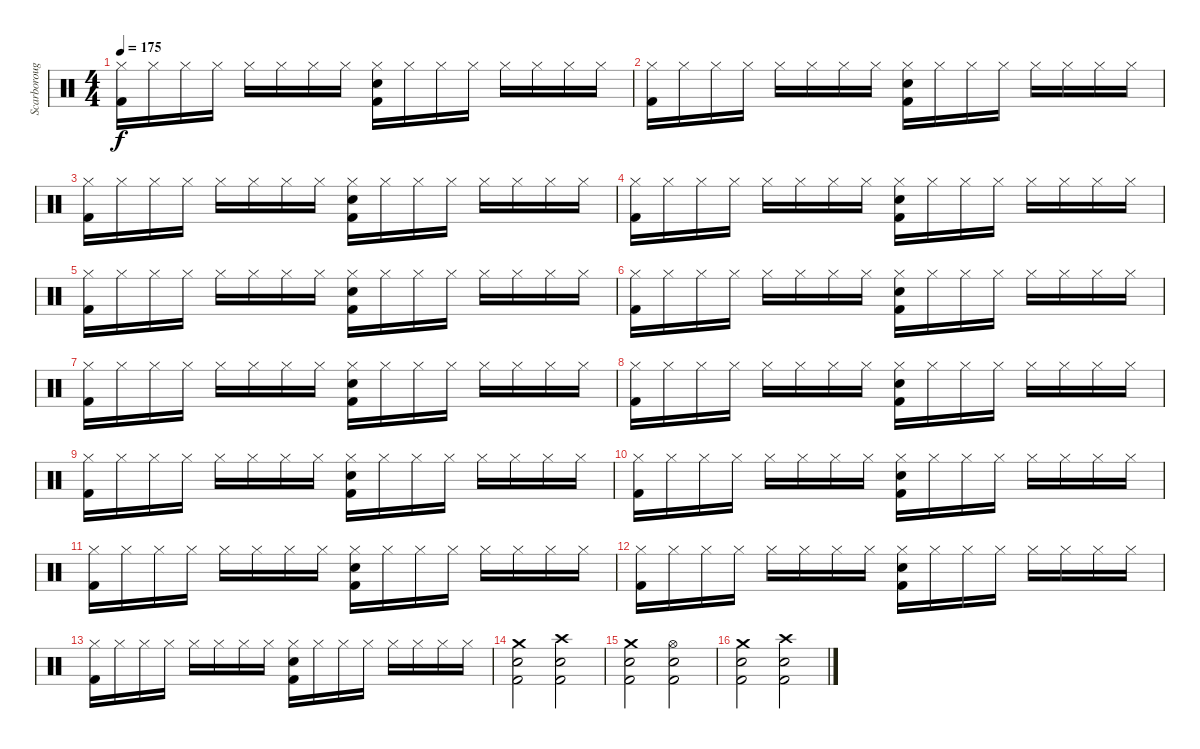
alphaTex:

\track ("Scarborough" "Scarboroug") {instrument percussion}
\staff {score}
\articulation defaults
\ts (4 4)
\tempo 175
\clef neutral
\ks c
("Hi-Hat (closed)" "Kick (hit) 2").16{dy f} "Hi-Hat (closed)".16 "Hi-Hat (closed)".16 "Hi-Hat (closed)".16 "Hi-Hat (closed)".16 "Hi-Hat (closed)".16 "Hi-Hat (closed)".16 "Hi-Hat (closed)".16 ("Hi-Hat (closed)" "Kick (hit) 2" "Snare (hit) 2").16 "Hi-Hat (closed)".16 "Hi-Hat (closed)".16 "Hi-Hat (closed)".16 "Hi-Hat (closed)".16 "Hi-Hat (closed)".16 "Hi-Hat (closed)".16 "Hi-Hat (closed)".16 |
("Hi-Hat (closed)" "Kick (hit) 2").16 "Hi-Hat (closed)".16 "Hi-Hat (closed)".16 "Hi-Hat (closed)".16 "Hi-Hat (closed)".16 "Hi-Hat (closed)".16 "Hi-Hat (closed)".16 "Hi-Hat (closed)".16 ("Hi-Hat (closed)" "Kick (hit) 2" "Snare (hit) 2").16 "Hi-Hat (closed)".16 "Hi-Hat (closed)".16 "Hi-Hat (closed)".16 "Hi-Hat (closed)".16 "Hi-Hat (closed)".16 "Hi-Hat (closed)".16 "Hi-Hat (closed)".16 |
("Hi-Hat (closed)" "Kick (hit) 2").16 "Hi-Hat (closed)".16 "Hi-Hat (closed)".16 "Hi-Hat (closed)".16 "Hi-Hat (closed)".16 "Hi-Hat (closed)".16 "Hi-Hat (closed)".16 "Hi-Hat (closed)".16 ("Hi-Hat (closed)" "Kick (hit) 2" "Snare (hit) 2").16 "Hi-Hat (closed)".16 "Hi-Hat (closed)".16 "Hi-Hat (closed)".16 "Hi-Hat (closed)".16 "Hi-Hat (closed)".16 "Hi-Hat (closed)".16 "Hi-Hat (closed)".16 |
("Hi-Hat (closed)" "Kick (hit) 2").16 "Hi-Hat (closed)".16 "Hi-Hat (closed)".16 "Hi-Hat (closed)".16 "Hi-Hat (closed)".16 "Hi-Hat (closed)".16 "Hi-Hat (closed)".16 "Hi-Hat (closed)".16 ("Hi-Hat (closed)" "Kick (hit) 2" "Snare (hit) 2").16 "Hi-Hat (closed)".16 "Hi-Hat (closed)".16 "Hi-Hat (closed)".16 "Hi-Hat (closed)".16 "Hi-Hat (closed)".16 "Hi-Hat (closed)".16 "Hi-Hat (closed)".16 |
("Hi-Hat (closed)" "Kick (hit) 2").16 "Hi-Hat (closed)".16 "Hi-Hat (closed)".16 "Hi-Hat (closed)".16 "Hi-Hat (closed)".16 "Hi-Hat (closed)".16 "Hi-Hat (closed)".16 "Hi-Hat (closed)".16 ("Hi-Hat (closed)" "Kick (hit) 2" "Snare (hit) 2").16 "Hi-Hat (closed)".16 "Hi-Hat (closed)".16 "Hi-Hat (closed)".16 "Hi-Hat (closed)".16 "Hi-Hat (closed)".16 "Hi-Hat (closed)".16 "Hi-Hat (closed)".16 |
("Hi-Hat (closed)" "Kick (hit) 2").16 "Hi-Hat (closed)".16 "Hi-Hat (closed)".16 "Hi-Hat (closed)".16 "Hi-Hat (closed)".16 "Hi-Hat (closed)".16 "Hi-Hat (closed)".16 "Hi-Hat (closed)".16 ("Hi-Hat (closed)" "Kick (hit) 2" "Snare (hit) 2").16 "Hi-Hat (closed)".16 "Hi-Hat (closed)".16 "Hi-Hat (closed)".16 "Hi-Hat (closed)".16 "Hi-Hat (closed)".16 "Hi-Hat (closed)".16 "Hi-Hat (closed)".16 |
("Hi-Hat (closed)" "Kick (hit) 2").16 "Hi-Hat (closed)".16 "Hi-Hat (closed)".16 "Hi-Hat (closed)".16 "Hi-Hat (closed)".16 "Hi-Hat (closed)".16 "Hi-Hat (closed)".16 "Hi-Hat (closed)".16 ("Hi-Hat (closed)" "Kick (hit) 2" "Snare (hit) 2").16 "Hi-Hat (closed)".16 "Hi-Hat (closed)".16 "Hi-Hat (closed)".16 "Hi-Hat (closed)".16 "Hi-Hat (closed)".16 "Hi-Hat (closed)".16 "Hi-Hat (closed)".16 |
("Hi-Hat (closed)" "Kick (hit) 2").16 "Hi-Hat (closed)".16 "Hi-Hat (closed)".16 "Hi-Hat (closed)".16 "Hi-Hat (closed)".16 "Hi-Hat (closed)".16 "Hi-Hat (closed)".16 "Hi-Hat (closed)".16 ("Hi-Hat (closed)" "Kick (hit) 2" "Snare (hit) 2").16 "Hi-Hat (closed)".16 "Hi-Hat (closed)".16 "Hi-Hat (closed)".16 "Hi-Hat (closed)".16 "Hi-Hat (closed)".16 "Hi-Hat (closed)".16 "Hi-Hat (closed)".16 |
("Hi-Hat (closed)" "Kick (hit) 2").16 "Hi-Hat (closed)".16 "Hi-Hat (closed)".16 "Hi-Hat (closed)".16 "Hi-Hat (closed)".16 "Hi-Hat (closed)".16 "Hi-Hat (closed)".16 "Hi-Hat (closed)".16 ("Hi-Hat (closed)" "Kick (hit) 2" "Snare (hit) 2").16 "Hi-Hat (closed)".16 "Hi-Hat (closed)".16 "Hi-Hat (closed)".16 "Hi-Hat (closed)".16 "Hi-Hat (closed)".16 "Hi-Hat (closed)".16 "Hi-Hat (closed)".16 |
("Hi-Hat (closed)" "Kick (hit) 2").16 "Hi-Hat (closed)".16 "Hi-Hat (closed)".16 "Hi-Hat (closed)".16 "Hi-Hat (closed)".16 "Hi-Hat (closed)".16 "Hi-Hat (closed)".16 "Hi-Hat (closed)".16 ("Hi-Hat (closed)" "Kick (hit) 2" "Snare (hit) 2").16 "Hi-Hat (closed)".16 "Hi-Hat (closed)".16 "Hi-Hat (closed)".16 "Hi-Hat (closed)".16 "Hi-Hat (closed)".16 "Hi-Hat (closed)".16 "Hi-Hat (closed)".16 |
("Hi-Hat (closed)" "Kick (hit) 2").16 "Hi-Hat (closed)".16 "Hi-Hat (closed)".16 "Hi-Hat (closed)".16 "Hi-Hat (closed)".16 "Hi-Hat (closed)".16 "Hi-Hat (closed)".16 "Hi-Hat (closed)".16 ("Hi-Hat (closed)" "Kick (hit) 2" "Snare (hit) 2").16 "Hi-Hat (closed)".16 "Hi-Hat (closed)".16 "Hi-Hat (closed)".16 "Hi-Hat (closed)".16 "Hi-Hat (closed)".16 "Hi-Hat (closed)".16 "Hi-Hat (closed)".16 |
("Hi-Hat (closed)" "Kick (hit) 2").16 "Hi-Hat (closed)".16 "Hi-Hat (closed)".16 "Hi-Hat (closed)".16 "Hi-Hat (closed)".16 "Hi-Hat (closed)".16 "Hi-Hat (closed)".16 "Hi-Hat (closed)".16 ("Hi-Hat (closed)" "Kick (hit) 2" "Snare (hit) 2").16 "Hi-Hat (closed)".16 "Hi-Hat (closed)".16 "Hi-Hat (closed)".16 "Hi-Hat (closed)".16 "Hi-Hat (closed)".16 "Hi-Hat (closed)".16 "Hi-Hat (closed)".16 |
("Hi-Hat (closed)" "Kick (hit) 2").16 "Hi-Hat (closed)".16 "Hi-Hat (closed)".16 "Hi-Hat (closed)".16 "Hi-Hat (closed)".16 "Hi-Hat (closed)".16 "Hi-Hat (closed)".16 "Hi-Hat (closed)".16 ("Hi-Hat (closed)" "Kick (hit) 2" "Snare (hit) 2").16 "Hi-Hat (closed)".16 "Hi-Hat (closed)".16 "Hi-Hat (closed)".16 "Hi-Hat (closed)".16 "Hi-Hat (closed)".16 "Hi-Hat (closed)".16 "Hi-Hat (closed)".16 |
("Crash medium (hit)" "Snare (hit) 2" "Kick (hit) 2").2 ("Crash high (hit)" "Snare (hit) 2" "Kick (hit) 2").2 |
("Crash medium (hit)" "Snare (hit) 2" "Kick (hit) 2").2 ("Hi-Hat (open)" "Snare (hit) 2" "Kick (hit) 2").2 |
("Crash medium (hit)" "Snare (hit) 2" "Kick (hit) 2").2 ("Crash high (hit)" "Snare (hit) 2" "Kick (hit) 2").2
